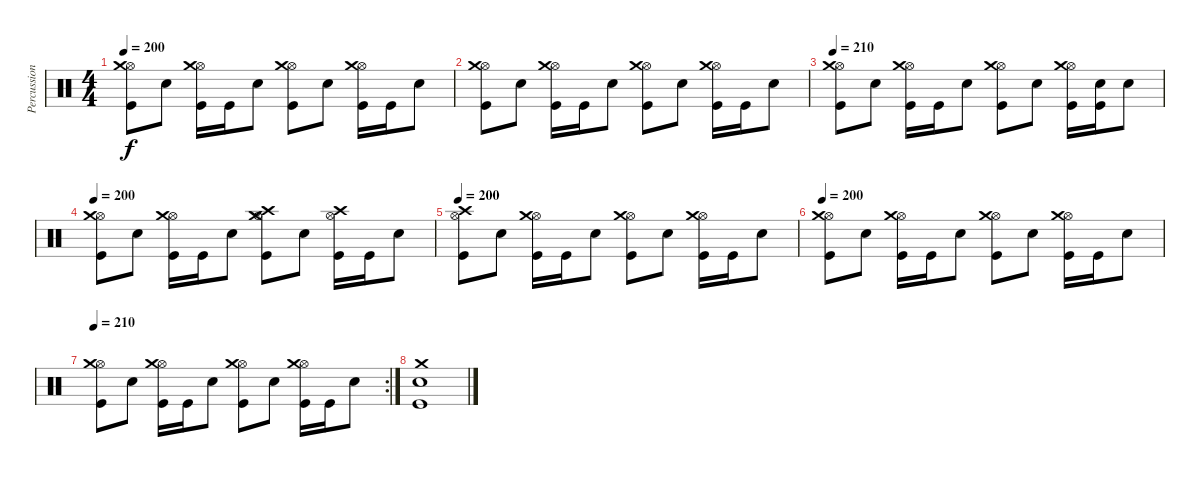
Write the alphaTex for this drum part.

\track ("Percussion" "Percussion") {instrument percussion}
\staff {score}
\articulation defaults
\ts (4 4)
\tempo 200
\clef neutral
\ks c
("Hi-Hat (open)" "Kick (hit)" "Crash medium (hit)").8{dy f} "Electric Snare (hit)".8 ("Hi-Hat (open)" "Kick (hit)" "Crash medium (hit)").16 "Kick (hit)".16 "Electric Snare (hit)".8 ("Hi-Hat (open)" "Kick (hit)" "Crash medium (hit)").8 "Electric Snare (hit)".8 ("Hi-Hat (open)" "Kick (hit)" "Crash medium (hit)").16 "Kick (hit)".16 "Electric Snare (hit)".8 |
("Hi-Hat (open)" "Kick (hit)" "Crash medium (hit)").8 "Electric Snare (hit)".8 ("Hi-Hat (open)" "Kick (hit)" "Crash medium (hit)").16 "Kick (hit)".16 "Electric Snare (hit)".8 ("Hi-Hat (open)" "Kick (hit)" "Crash medium (hit)").8 "Electric Snare (hit)".8 ("Hi-Hat (open)" "Kick (hit)" "Crash medium (hit)").16 "Kick (hit)".16 "Electric Snare (hit)".8 |
\tempo 210
("Hi-Hat (open)" "Kick (hit)" "Crash medium (hit)").8 "Electric Snare (hit)".8 ("Hi-Hat (open)" "Kick (hit)" "Crash medium (hit)").16 "Kick (hit)".16 "Electric Snare (hit)".8 ("Hi-Hat (open)" "Kick (hit)" "Crash medium (hit)").8 "Electric Snare (hit)".8 ("Hi-Hat (open)" "Kick (hit)" "Crash medium (hit)").16 ("Kick (hit)" "Snare (hit)").16 "Electric Snare (hit)".8 |
\tempo 200
("Hi-Hat (open)" "Kick (hit)" "Crash medium (hit)").8 "Electric Snare (hit)".8 ("Hi-Hat (open)" "Kick (hit)" "Crash medium (hit)").16 "Kick (hit)".16 "Electric Snare (hit)".8 ("Hi-Hat (open)" "Kick (hit)" "Crash medium (hit)" "Crash high (hit)").8 "Electric Snare (hit)".8 ("Hi-Hat (open)" "Kick (hit)" "Crash high (hit)").16 "Kick (hit)".16 "Electric Snare (hit)".8 |
\tempo 200
("Hi-Hat (open)" "Kick (hit)" "Crash high (hit)").8 "Electric Snare (hit)".8 ("Hi-Hat (open)" "Kick (hit)" "Crash medium (hit)").16 "Kick (hit)".16 "Electric Snare (hit)".8 ("Hi-Hat (open)" "Kick (hit)" "Crash medium (hit)").8 "Electric Snare (hit)".8 ("Hi-Hat (open)" "Kick (hit)" "Crash medium (hit)").16 "Kick (hit)".16 "Electric Snare (hit)".8 |
\tempo 200
("Hi-Hat (open)" "Kick (hit)" "Crash medium (hit)").8 "Electric Snare (hit)".8 ("Hi-Hat (open)" "Kick (hit)" "Crash medium (hit)").16 "Kick (hit)".16 "Electric Snare (hit)".8 ("Hi-Hat (open)" "Kick (hit)" "Crash medium (hit)").8 "Electric Snare (hit)".8 ("Hi-Hat (open)" "Kick (hit)" "Crash medium (hit)").16 "Kick (hit)".16 "Electric Snare (hit)".8 |
\rc 2
\tempo 210
("Hi-Hat (open)" "Kick (hit)" "Crash medium (hit)").8 "Electric Snare (hit)".8 ("Hi-Hat (open)" "Kick (hit)" "Crash medium (hit)").16 "Kick (hit)".16 "Electric Snare (hit)".8 ("Hi-Hat (open)" "Kick (hit)" "Crash medium (hit)").8 "Electric Snare (hit)".8 ("Hi-Hat (open)" "Kick (hit)" "Crash medium (hit)").16 "Kick (hit)".16 "Electric Snare (hit)".8 |
("Crash medium (hit)" "Electric Snare (hit)" "Kick (hit)").1
